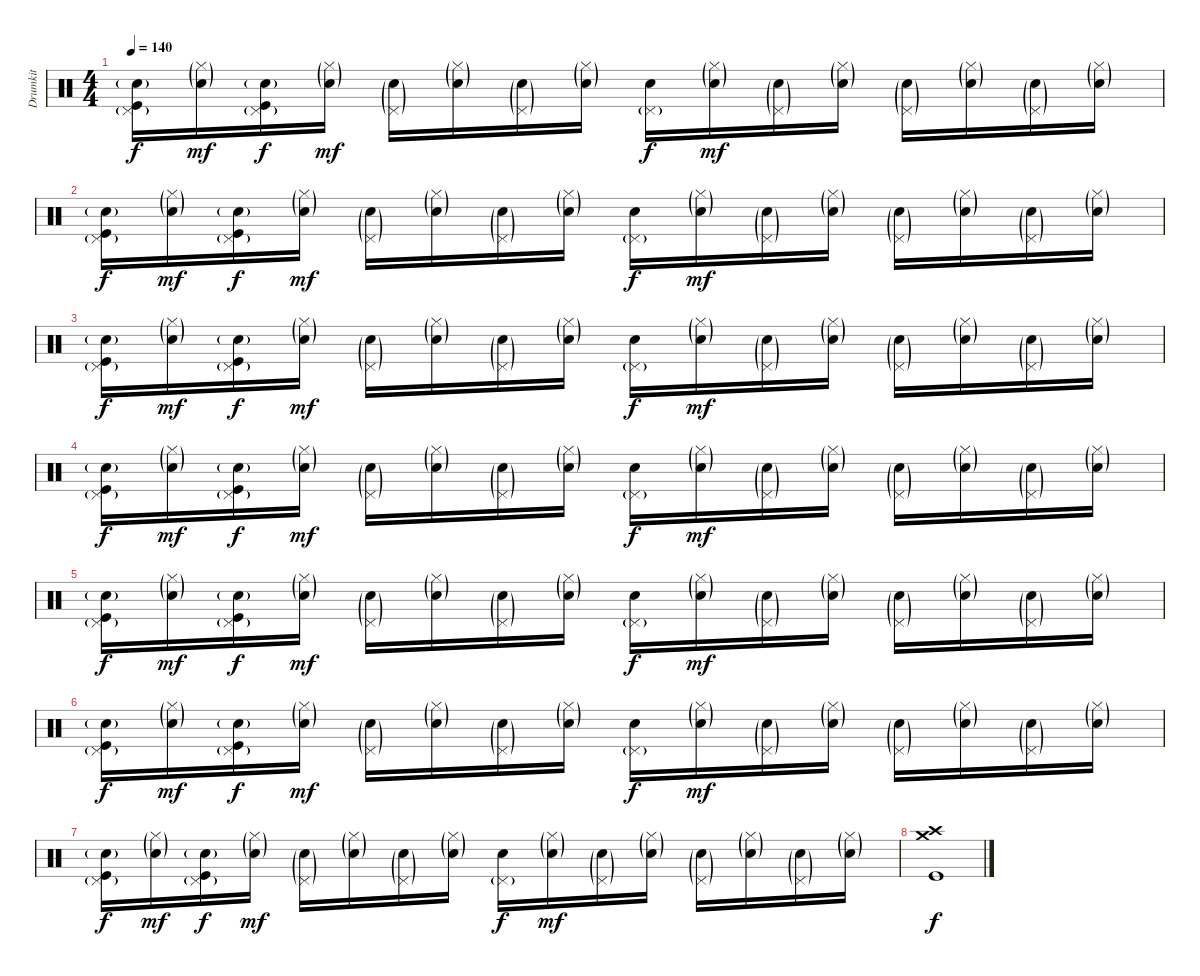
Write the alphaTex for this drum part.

\track ("Drumkit" "Drumkit") {instrument percussion}
\staff {score}
\articulation defaults
\ts (4 4)
\tempo 140
\clef neutral
\ks c
("Pedal Hi-Hat (hit)"{g} "Snare (hit) 2"{g} "Kick (hit)").16{dy f} ("Hi-Hat (closed)"{g} "Snare (hit) 2"{g}).16{dy mf} ("Pedal Hi-Hat (hit)"{g} "Snare (hit) 2"{g} "Kick (hit)").16{dy f} ("Hi-Hat (closed)"{g} "Snare (hit) 2"{g}).16{dy mf} ("Pedal Hi-Hat (hit)"{g} "Snare (hit) 2"{g}).16 ("Hi-Hat (closed)"{g} "Snare (hit) 2"{g}).16 ("Pedal Hi-Hat (hit)"{g} "Snare (hit) 2"{g}).16 ("Hi-Hat (closed)"{g} "Snare (hit) 2"{g}).16 ("Pedal Hi-Hat (hit)"{g} "Snare (hit) 2").16{dy f} ("Hi-Hat (closed)"{g} "Snare (hit) 2"{g}).16{dy mf} ("Pedal Hi-Hat (hit)"{g} "Snare (hit) 2"{g}).16 ("Hi-Hat (closed)"{g} "Snare (hit) 2"{g}).16 ("Pedal Hi-Hat (hit)"{g} "Snare (hit) 2"{g}).16 ("Hi-Hat (closed)"{g} "Snare (hit) 2"{g}).16 ("Pedal Hi-Hat (hit)"{g} "Snare (hit) 2"{g}).16 ("Hi-Hat (closed)"{g} "Snare (hit) 2"{g}).16 |
("Pedal Hi-Hat (hit)"{g} "Snare (hit) 2"{g} "Kick (hit)").16{dy f} ("Hi-Hat (closed)"{g} "Snare (hit) 2"{g}).16{dy mf} ("Pedal Hi-Hat (hit)"{g} "Snare (hit) 2"{g} "Kick (hit)").16{dy f} ("Hi-Hat (closed)"{g} "Snare (hit) 2"{g}).16{dy mf} ("Pedal Hi-Hat (hit)"{g} "Snare (hit) 2"{g}).16 ("Hi-Hat (closed)"{g} "Snare (hit) 2"{g}).16 ("Pedal Hi-Hat (hit)"{g} "Snare (hit) 2"{g}).16 ("Hi-Hat (closed)"{g} "Snare (hit) 2"{g}).16 ("Pedal Hi-Hat (hit)"{g} "Snare (hit) 2").16{dy f} ("Hi-Hat (closed)"{g} "Snare (hit) 2"{g}).16{dy mf} ("Pedal Hi-Hat (hit)"{g} "Snare (hit) 2"{g}).16 ("Hi-Hat (closed)"{g} "Snare (hit) 2"{g}).16 ("Pedal Hi-Hat (hit)"{g} "Snare (hit) 2"{g}).16 ("Hi-Hat (closed)"{g} "Snare (hit) 2"{g}).16 ("Pedal Hi-Hat (hit)"{g} "Snare (hit) 2"{g}).16 ("Hi-Hat (closed)"{g} "Snare (hit) 2"{g}).16 |
("Pedal Hi-Hat (hit)"{g} "Snare (hit) 2"{g} "Kick (hit)").16{dy f} ("Hi-Hat (closed)"{g} "Snare (hit) 2"{g}).16{dy mf} ("Pedal Hi-Hat (hit)"{g} "Snare (hit) 2"{g} "Kick (hit)").16{dy f} ("Hi-Hat (closed)"{g} "Snare (hit) 2"{g}).16{dy mf} ("Pedal Hi-Hat (hit)"{g} "Snare (hit) 2"{g}).16 ("Hi-Hat (closed)"{g} "Snare (hit) 2"{g}).16 ("Pedal Hi-Hat (hit)"{g} "Snare (hit) 2"{g}).16 ("Hi-Hat (closed)"{g} "Snare (hit) 2"{g}).16 ("Pedal Hi-Hat (hit)"{g} "Snare (hit) 2").16{dy f} ("Hi-Hat (closed)"{g} "Snare (hit) 2"{g}).16{dy mf} ("Pedal Hi-Hat (hit)"{g} "Snare (hit) 2"{g}).16 ("Hi-Hat (closed)"{g} "Snare (hit) 2"{g}).16 ("Pedal Hi-Hat (hit)"{g} "Snare (hit) 2"{g}).16 ("Hi-Hat (closed)"{g} "Snare (hit) 2"{g}).16 ("Pedal Hi-Hat (hit)"{g} "Snare (hit) 2"{g}).16 ("Hi-Hat (closed)"{g} "Snare (hit) 2"{g}).16 |
("Pedal Hi-Hat (hit)"{g} "Snare (hit) 2"{g} "Kick (hit)").16{dy f} ("Hi-Hat (closed)"{g} "Snare (hit) 2"{g}).16{dy mf} ("Pedal Hi-Hat (hit)"{g} "Snare (hit) 2"{g} "Kick (hit)").16{dy f} ("Hi-Hat (closed)"{g} "Snare (hit) 2"{g}).16{dy mf} ("Pedal Hi-Hat (hit)"{g} "Snare (hit) 2"{g}).16 ("Hi-Hat (closed)"{g} "Snare (hit) 2"{g}).16 ("Pedal Hi-Hat (hit)"{g} "Snare (hit) 2"{g}).16 ("Hi-Hat (closed)"{g} "Snare (hit) 2"{g}).16 ("Pedal Hi-Hat (hit)"{g} "Snare (hit) 2").16{dy f} ("Hi-Hat (closed)"{g} "Snare (hit) 2"{g}).16{dy mf} ("Pedal Hi-Hat (hit)"{g} "Snare (hit) 2"{g}).16 ("Hi-Hat (closed)"{g} "Snare (hit) 2"{g}).16 ("Pedal Hi-Hat (hit)"{g} "Snare (hit) 2"{g}).16 ("Hi-Hat (closed)"{g} "Snare (hit) 2"{g}).16 ("Pedal Hi-Hat (hit)"{g} "Snare (hit) 2"{g}).16 ("Hi-Hat (closed)"{g} "Snare (hit) 2"{g}).16 |
("Pedal Hi-Hat (hit)"{g} "Snare (hit) 2"{g} "Kick (hit)").16{dy f} ("Hi-Hat (closed)"{g} "Snare (hit) 2"{g}).16{dy mf} ("Pedal Hi-Hat (hit)"{g} "Snare (hit) 2"{g} "Kick (hit)").16{dy f} ("Hi-Hat (closed)"{g} "Snare (hit) 2"{g}).16{dy mf} ("Pedal Hi-Hat (hit)"{g} "Snare (hit) 2"{g}).16 ("Hi-Hat (closed)"{g} "Snare (hit) 2"{g}).16 ("Pedal Hi-Hat (hit)"{g} "Snare (hit) 2"{g}).16 ("Hi-Hat (closed)"{g} "Snare (hit) 2"{g}).16 ("Pedal Hi-Hat (hit)"{g} "Snare (hit) 2").16{dy f} ("Hi-Hat (closed)"{g} "Snare (hit) 2"{g}).16{dy mf} ("Pedal Hi-Hat (hit)"{g} "Snare (hit) 2"{g}).16 ("Hi-Hat (closed)"{g} "Snare (hit) 2"{g}).16 ("Pedal Hi-Hat (hit)"{g} "Snare (hit) 2"{g}).16 ("Hi-Hat (closed)"{g} "Snare (hit) 2"{g}).16 ("Pedal Hi-Hat (hit)"{g} "Snare (hit) 2"{g}).16 ("Hi-Hat (closed)"{g} "Snare (hit) 2"{g}).16 |
("Pedal Hi-Hat (hit)"{g} "Snare (hit) 2"{g} "Kick (hit)").16{dy f} ("Hi-Hat (closed)"{g} "Snare (hit) 2"{g}).16{dy mf} ("Pedal Hi-Hat (hit)"{g} "Snare (hit) 2"{g} "Kick (hit)").16{dy f} ("Hi-Hat (closed)"{g} "Snare (hit) 2"{g}).16{dy mf} ("Pedal Hi-Hat (hit)"{g} "Snare (hit) 2"{g}).16 ("Hi-Hat (closed)"{g} "Snare (hit) 2"{g}).16 ("Pedal Hi-Hat (hit)"{g} "Snare (hit) 2"{g}).16 ("Hi-Hat (closed)"{g} "Snare (hit) 2"{g}).16 ("Pedal Hi-Hat (hit)"{g} "Snare (hit) 2").16{dy f} ("Hi-Hat (closed)"{g} "Snare (hit) 2"{g}).16{dy mf} ("Pedal Hi-Hat (hit)"{g} "Snare (hit) 2"{g}).16 ("Hi-Hat (closed)"{g} "Snare (hit) 2"{g}).16 ("Pedal Hi-Hat (hit)"{g} "Snare (hit) 2"{g}).16 ("Hi-Hat (closed)"{g} "Snare (hit) 2"{g}).16 ("Pedal Hi-Hat (hit)"{g} "Snare (hit) 2"{g}).16 ("Hi-Hat (closed)"{g} "Snare (hit) 2"{g}).16 |
("Pedal Hi-Hat (hit)"{g} "Snare (hit) 2"{g} "Kick (hit)").16{dy f} ("Hi-Hat (closed)"{g} "Snare (hit) 2"{g}).16{dy mf} ("Pedal Hi-Hat (hit)"{g} "Snare (hit) 2"{g} "Kick (hit)").16{dy f} ("Hi-Hat (closed)"{g} "Snare (hit) 2"{g}).16{dy mf} ("Pedal Hi-Hat (hit)"{g} "Snare (hit) 2"{g}).16 ("Hi-Hat (closed)"{g} "Snare (hit) 2"{g}).16 ("Pedal Hi-Hat (hit)"{g} "Snare (hit) 2"{g}).16 ("Hi-Hat (closed)"{g} "Snare (hit) 2"{g}).16 ("Pedal Hi-Hat (hit)"{g} "Snare (hit) 2").16{dy f} ("Hi-Hat (closed)"{g} "Snare (hit) 2"{g}).16{dy mf} ("Pedal Hi-Hat (hit)"{g} "Snare (hit) 2"{g}).16 ("Hi-Hat (closed)"{g} "Snare (hit) 2"{g}).16 ("Pedal Hi-Hat (hit)"{g} "Snare (hit) 2"{g}).16 ("Hi-Hat (closed)"{g} "Snare (hit) 2"{g}).16 ("Pedal Hi-Hat (hit)"{g} "Snare (hit) 2"{g}).16 ("Hi-Hat (closed)"{g} "Snare (hit) 2"{g}).16 |
("Crash medium (hit)" "Crash high (hit)" "Kick (hit)").1{dy f}
